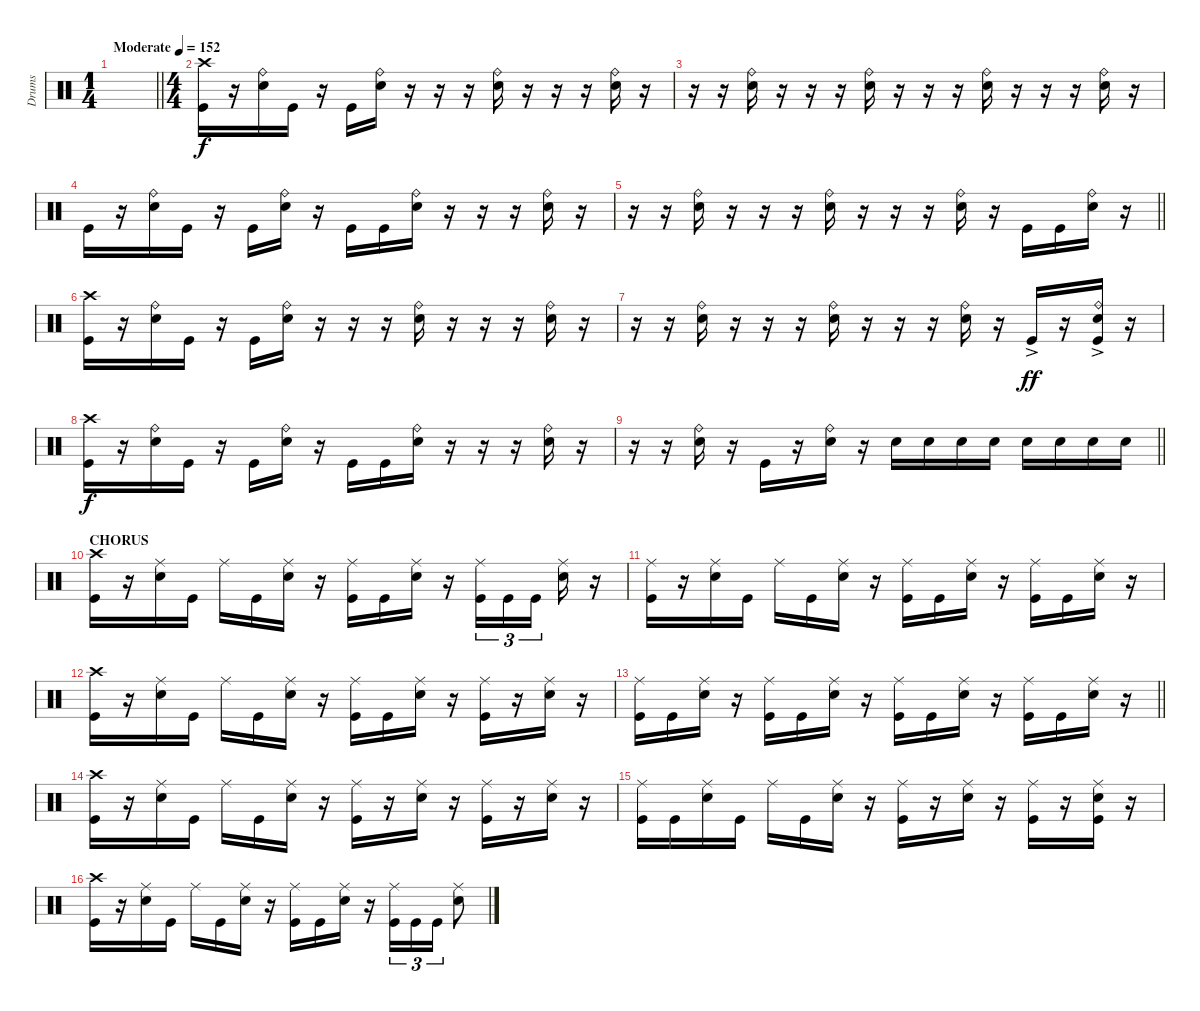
\track ("Drums" "Drums") {instrument percussion}
\staff
\articulation defaults
\ts (1 4)
\tempo (152 "Moderate")
\clef neutral
\barLineRight lightlight
\ks c
|
\ts (4 4)
("Crash high (hit)" "Kick (hit)").16 r.16 ("Ride (bell)" "Electric Snare (hit)").16 "Kick (hit)".16 r.16 "Kick (hit)".16 ("Ride (bell)" "Electric Snare (hit)").16 r.16 r.16 r.16 ("Ride (bell)" "Electric Snare (hit)").16 r.16 r.16 r.16 ("Ride (bell)" "Electric Snare (hit)").16 r.16 |
r.16 r.16 ("Ride (bell)" "Electric Snare (hit)").16 r.16 r.16 r.16 ("Ride (bell)" "Electric Snare (hit)").16 r.16 r.16 r.16 ("Ride (bell)" "Electric Snare (hit)").16 r.16 r.16 r.16 ("Ride (bell)" "Electric Snare (hit)").16 r.16 |
"Kick (hit)".16 r.16 ("Ride (bell)" "Electric Snare (hit)").16 "Kick (hit)".16 r.16 "Kick (hit)".16 ("Ride (bell)" "Electric Snare (hit)").16 r.16 "Kick (hit)".16 "Kick (hit)".16 ("Ride (bell)" "Electric Snare (hit)").16 r.16 r.16 r.16 ("Ride (bell)" "Electric Snare (hit)").16 r.16 |
\barLineRight lightlight
r.16 r.16 ("Ride (bell)" "Electric Snare (hit)").16 r.16 r.16 r.16 ("Ride (bell)" "Electric Snare (hit)").16 r.16 r.16 r.16 ("Ride (bell)" "Electric Snare (hit)").16 r.16 "Kick (hit)".16 "Kick (hit)".16 ("Ride (bell)" "Electric Snare (hit)").16 r.16 |
("Crash high (hit)" "Kick (hit)").16 r.16 ("Ride (bell)" "Electric Snare (hit)").16 "Kick (hit)".16 r.16 "Kick (hit)".16 ("Ride (bell)" "Electric Snare (hit)").16 r.16 r.16 r.16 ("Ride (bell)" "Electric Snare (hit)").16 r.16 r.16 r.16 ("Ride (bell)" "Electric Snare (hit)").16 r.16 |
r.16 r.16 ("Ride (bell)" "Electric Snare (hit)").16 r.16 r.16 r.16 ("Ride (bell)" "Electric Snare (hit)").16 r.16 r.16 r.16 ("Ride (bell)" "Electric Snare (hit)").16 r.16 "Kick (hit)"{ac}.16{dy ff} r.16 ("Ride (bell)" "Electric Snare (hit)" "Kick (hit)"{ac}).16 r.16 |
("Crash high (hit)" "Kick (hit)").16{dy f} r.16 ("Ride (bell)" "Electric Snare (hit)").16 "Kick (hit)".16 r.16 "Kick (hit)".16 ("Ride (bell)" "Electric Snare (hit)").16 r.16 "Kick (hit)".16 "Kick (hit)".16 ("Ride (bell)" "Electric Snare (hit)").16 r.16 r.16 r.16 ("Ride (bell)" "Electric Snare (hit)").16 r.16 |
\barLineRight lightlight
r.16 r.16 ("Ride (bell)" "Electric Snare (hit)").16 r.16 "Kick (hit)".16 r.16 ("Ride (bell)" "Electric Snare (hit)").16 r.16 "Electric Snare (hit)".16 "Electric Snare (hit)".16 "Electric Snare (hit)".16 "Electric Snare (hit)".16 "Electric Snare (hit)".16 "Electric Snare (hit)".16 "Electric Snare (hit)".16 "Electric Snare (hit)".16 |
\section ("" "CHORUS")
("Crash high (hit)" "Kick (hit)").16 r.16 ("Ride (middle)" "Electric Snare (hit)").16 "Kick (hit)".16 "Ride (middle)".16 "Kick (hit)".16 ("Ride (middle)" "Electric Snare (hit)").16 r.16 ("Ride (middle)" "Kick (hit)").16 "Kick (hit)".16 ("Ride (middle)" "Electric Snare (hit)").16 r.16 ("Ride (middle)" "Kick (hit)").16{tu (3 2)} "Kick (hit)".16{tu (3 2)} "Kick (hit)".16{tu (3 2) beam splitsecondary} ("Ride (middle)" "Electric Snare (hit)").16 r.16 |
("Ride (middle)" "Kick (hit)").16 r.16 ("Ride (middle)" "Electric Snare (hit)").16 "Kick (hit)".16 "Ride (middle)".16 "Kick (hit)".16 ("Ride (middle)" "Electric Snare (hit)").16 r.16 ("Ride (middle)" "Kick (hit)").16 "Kick (hit)".16 ("Ride (middle)" "Electric Snare (hit)").16 r.16 ("Ride (middle)" "Kick (hit)").16 "Kick (hit)".16 ("Ride (middle)" "Electric Snare (hit)").16 r.16 |
("Crash high (hit)" "Kick (hit)").16 r.16 ("Ride (middle)" "Electric Snare (hit)").16 "Kick (hit)".16 "Ride (middle)".16 "Kick (hit)".16 ("Ride (middle)" "Electric Snare (hit)").16 r.16 ("Ride (middle)" "Kick (hit)").16 "Kick (hit)".16 ("Ride (middle)" "Electric Snare (hit)").16 r.16 ("Ride (middle)" "Kick (hit)").16 r.16 ("Ride (middle)" "Electric Snare (hit)").16 r.16 |
\barLineRight lightlight
("Ride (middle)" "Kick (hit)").16 "Kick (hit)".16 ("Ride (middle)" "Electric Snare (hit)").16 r.16 ("Ride (middle)" "Kick (hit)").16 "Kick (hit)".16 ("Ride (middle)" "Electric Snare (hit)").16 r.16 ("Ride (middle)" "Kick (hit)").16 "Kick (hit)".16 ("Ride (middle)" "Electric Snare (hit)").16 r.16 ("Ride (middle)" "Kick (hit)").16 "Kick (hit)".16 ("Ride (middle)" "Electric Snare (hit)").16 r.16 |
("Crash high (hit)" "Kick (hit)").16 r.16 ("Ride (middle)" "Electric Snare (hit)").16 "Kick (hit)".16 "Ride (middle)".16 "Kick (hit)".16 ("Ride (middle)" "Electric Snare (hit)").16 r.16 ("Ride (middle)" "Kick (hit)").16 r.16 ("Ride (middle)" "Electric Snare (hit)").16 r.16 ("Ride (middle)" "Kick (hit)").16 r.16 ("Ride (middle)" "Electric Snare (hit)").16 r.16 |
("Ride (middle)" "Kick (hit)").16 "Kick (hit)".16 ("Ride (middle)" "Electric Snare (hit)").16 "Kick (hit)".16 "Ride (middle)".16 "Kick (hit)".16 ("Ride (middle)" "Electric Snare (hit)").16 r.16 ("Ride (middle)" "Kick (hit)").16 r.16 ("Ride (middle)" "Electric Snare (hit)").16 r.16 ("Ride (middle)" "Kick (hit)").16 r.16 ("Ride (middle)" "Electric Snare (hit)" "Kick (hit)").16 r.16 |
("Crash high (hit)" "Kick (hit)").16 r.16 ("Ride (middle)" "Electric Snare (hit)").16 "Kick (hit)".16 "Ride (middle)".16 "Kick (hit)".16 ("Ride (middle)" "Electric Snare (hit)").16 r.16 ("Ride (middle)" "Kick (hit)").16 "Kick (hit)".16 ("Ride (middle)" "Electric Snare (hit)").16 r.16 ("Ride (middle)" "Kick (hit)").16{tu (3 2)} "Kick (hit)".16{tu (3 2)} "Kick (hit)".16{tu (3 2)} ("Ride (middle)" "Electric Snare (hit)").8
